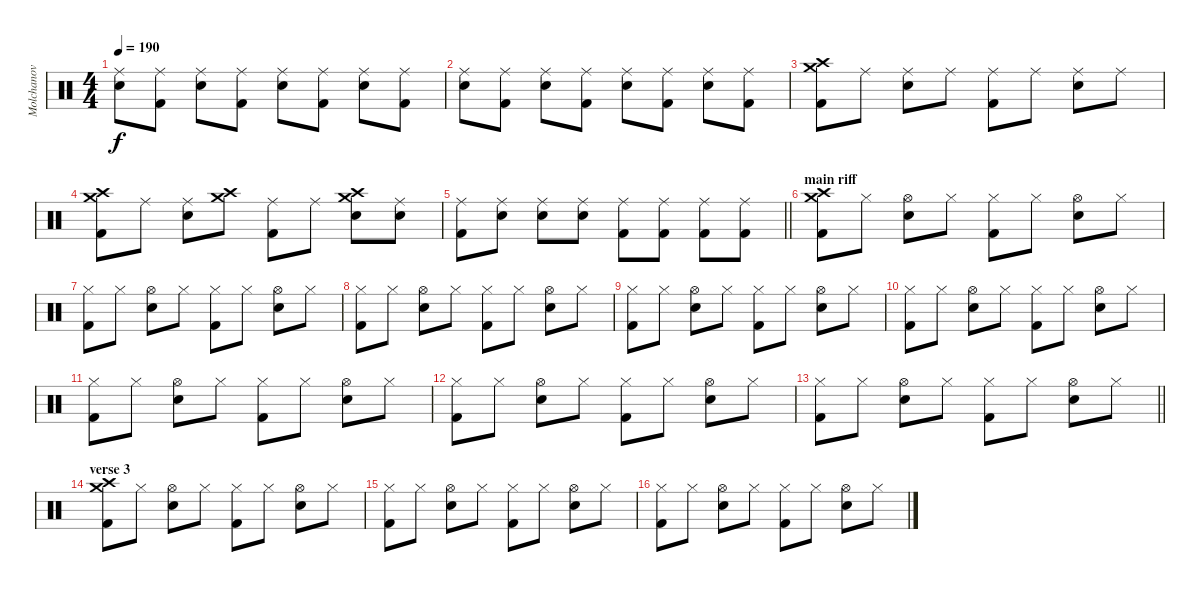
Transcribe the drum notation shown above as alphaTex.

\track ("Molchanov" "Molchanov") {instrument percussion}
\staff {score}
\articulation defaults
\ts (4 4)
\tempo 190
\clef neutral
\ks c
("Ride (middle)" "Snare (hit) 2").8{dy f} ("Ride (middle)" "Kick (hit) 2").8 ("Ride (middle)" "Snare (hit) 2").8 ("Ride (middle)" "Kick (hit) 2").8 ("Ride (middle)" "Snare (hit) 2").8 ("Ride (middle)" "Kick (hit) 2").8 ("Ride (middle)" "Snare (hit) 2").8 ("Ride (middle)" "Kick (hit) 2").8 |
("Ride (middle)" "Snare (hit) 2").8 ("Ride (middle)" "Kick (hit) 2").8 ("Ride (middle)" "Snare (hit) 2").8 ("Ride (middle)" "Kick (hit) 2").8 ("Ride (middle)" "Snare (hit) 2").8 ("Ride (middle)" "Kick (hit) 2").8 ("Ride (middle)" "Snare (hit) 2").8 ("Ride (middle)" "Kick (hit) 2").8 |
("Crash high (hit)" "Crash medium (hit)" "Kick (hit) 2").8 "Ride (middle)".8 ("Ride (middle)" "Snare (hit) 2").8 "Ride (middle)".8 ("Ride (middle)" "Kick (hit) 2").8 "Ride (middle)".8 ("Ride (middle)" "Snare (hit) 2").8 "Ride (middle)".8 |
("Crash high (hit)" "Crash medium (hit)" "Kick (hit) 2").8 "Ride (middle)".8 ("Ride (middle)" "Snare (hit) 2").8 ("Crash high (hit)" "Crash medium (hit)").8 ("Ride (middle)" "Kick (hit) 2").8 "Ride (middle)".8 ("Crash high (hit)" "Snare (hit) 2" "Crash medium (hit)").8 ("Ride (middle)" "Snare (hit) 2").8 |
\barLineRight lightlight
("Ride (middle)" "Kick (hit) 2").8 ("Ride (middle)" "Snare (hit) 2").8 ("Ride (middle)" "Snare (hit) 2").8 ("Ride (middle)" "Snare (hit) 2").8 ("Ride (middle)" "Kick (hit) 2").8 ("Ride (middle)" "Kick (hit) 2").8 ("Ride (middle)" "Kick (hit) 2").8 ("Ride (middle)" "Kick (hit) 2").8 |
\section ("" "main riff")
("Crash high (hit)" "Crash medium (hit)" "Kick (hit) 2").8 "Hi-Hat (closed)".8 ("Hi-Hat (open)" "Snare (hit) 2").8 "Hi-Hat (closed)".8 ("Hi-Hat (closed)" "Kick (hit) 2").8 "Hi-Hat (closed)".8 ("Hi-Hat (open)" "Snare (hit) 2").8 "Hi-Hat (closed)".8 |
("Hi-Hat (closed)" "Kick (hit) 2").8 "Hi-Hat (closed)".8 ("Hi-Hat (open)" "Snare (hit) 2").8 "Hi-Hat (closed)".8 ("Hi-Hat (closed)" "Kick (hit) 2").8 "Hi-Hat (closed)".8 ("Hi-Hat (open)" "Snare (hit) 2").8 "Hi-Hat (closed)".8 |
("Hi-Hat (closed)" "Kick (hit) 2").8 "Hi-Hat (closed)".8 ("Hi-Hat (open)" "Snare (hit) 2").8 "Hi-Hat (closed)".8 ("Hi-Hat (closed)" "Kick (hit) 2").8 "Hi-Hat (closed)".8 ("Hi-Hat (open)" "Snare (hit) 2").8 "Hi-Hat (closed)".8 |
("Hi-Hat (closed)" "Kick (hit) 2").8 "Hi-Hat (closed)".8 ("Hi-Hat (open)" "Snare (hit) 2").8 "Hi-Hat (closed)".8 ("Hi-Hat (closed)" "Kick (hit) 2").8 "Hi-Hat (closed)".8 ("Hi-Hat (open)" "Snare (hit) 2").8 "Hi-Hat (closed)".8 |
("Hi-Hat (closed)" "Kick (hit) 2").8 "Hi-Hat (closed)".8 ("Hi-Hat (open)" "Snare (hit) 2").8 "Hi-Hat (closed)".8 ("Hi-Hat (closed)" "Kick (hit) 2").8 "Hi-Hat (closed)".8 ("Hi-Hat (open)" "Snare (hit) 2").8 "Hi-Hat (closed)".8 |
("Hi-Hat (closed)" "Kick (hit) 2").8 "Hi-Hat (closed)".8 ("Hi-Hat (open)" "Snare (hit) 2").8 "Hi-Hat (closed)".8 ("Hi-Hat (closed)" "Kick (hit) 2").8 "Hi-Hat (closed)".8 ("Hi-Hat (open)" "Snare (hit) 2").8 "Hi-Hat (closed)".8 |
("Hi-Hat (closed)" "Kick (hit) 2").8 "Hi-Hat (closed)".8 ("Hi-Hat (open)" "Snare (hit) 2").8 "Hi-Hat (closed)".8 ("Hi-Hat (closed)" "Kick (hit) 2").8 "Hi-Hat (closed)".8 ("Hi-Hat (open)" "Snare (hit) 2").8 "Hi-Hat (closed)".8 |
\barLineRight lightlight
("Hi-Hat (closed)" "Kick (hit) 2").8 "Hi-Hat (closed)".8 ("Hi-Hat (open)" "Snare (hit) 2").8 "Hi-Hat (closed)".8 ("Hi-Hat (closed)" "Kick (hit) 2").8 "Hi-Hat (closed)".8 ("Hi-Hat (open)" "Snare (hit) 2").8 "Hi-Hat (closed)".8 |
\section ("" "verse 3")
("Crash high (hit)" "Crash medium (hit)" "Kick (hit) 2").8 "Hi-Hat (closed)".8 ("Hi-Hat (open)" "Snare (hit) 2").8 "Hi-Hat (closed)".8 ("Hi-Hat (closed)" "Kick (hit) 2").8 "Hi-Hat (closed)".8 ("Hi-Hat (open)" "Snare (hit) 2").8 "Hi-Hat (closed)".8 |
("Hi-Hat (closed)" "Kick (hit) 2").8 "Hi-Hat (closed)".8 ("Hi-Hat (open)" "Snare (hit) 2").8 "Hi-Hat (closed)".8 ("Hi-Hat (closed)" "Kick (hit) 2").8 "Hi-Hat (closed)".8 ("Hi-Hat (open)" "Snare (hit) 2").8 "Hi-Hat (closed)".8 |
("Hi-Hat (closed)" "Kick (hit) 2").8 "Hi-Hat (closed)".8 ("Hi-Hat (open)" "Snare (hit) 2").8 "Hi-Hat (closed)".8 ("Hi-Hat (closed)" "Kick (hit) 2").8 "Hi-Hat (closed)".8 ("Hi-Hat (open)" "Snare (hit) 2").8 "Hi-Hat (closed)".8
